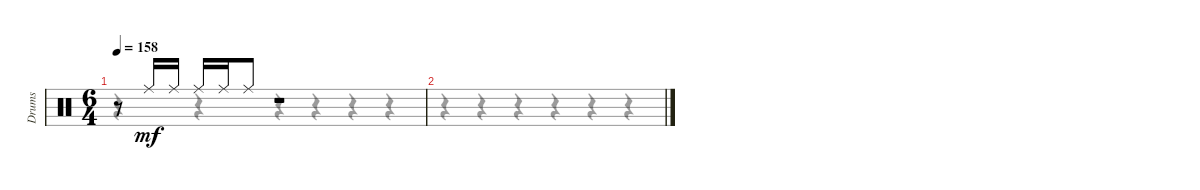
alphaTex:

\track ("Drums" "Drums") {instrument percussion}
\staff {score}
\articulation defaults
\voice
\ts (6 4)
\tempo 158
\clef neutral
\ks c
r.8{dy mf} "Ride (middle)".16 "Ride (middle)".16 "Ride (middle)".16 "Ride (middle)".16 "Ride (middle)".8 r.1 |
\voice
\clef neutral
\ottava regular
\simile none
\ks c
r.4{dy mf} r.4 r.4 r.4 r.4 r.4 |
r.4 r.4 r.4 r.4 r.4 r.4
